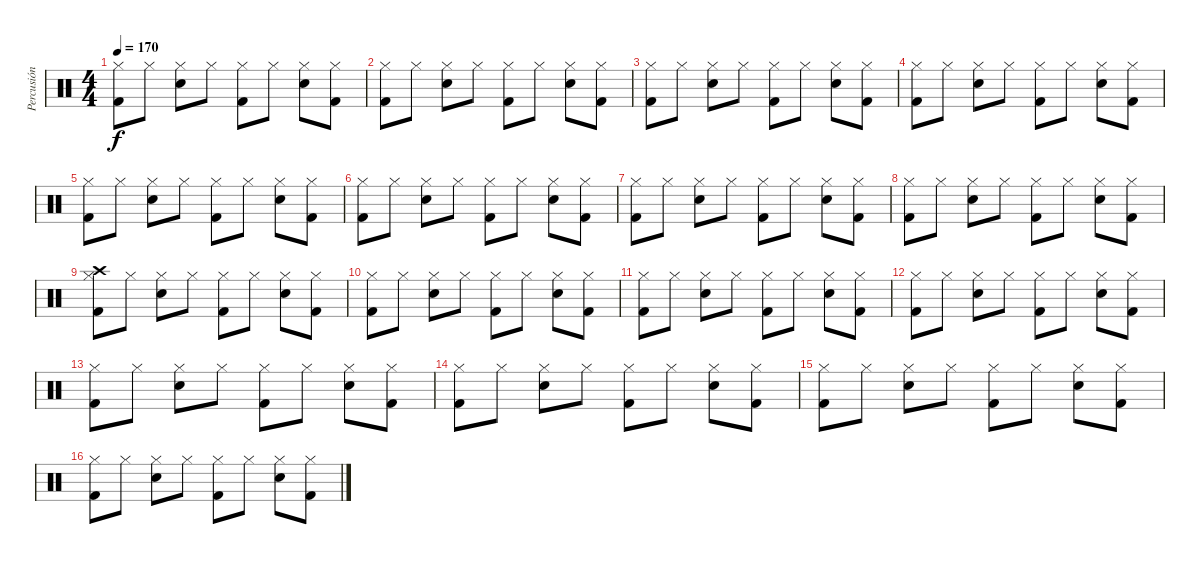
\track ("Percusión" "Percusión") {instrument percussion}
\staff {score}
\articulation defaults
\ts (4 4)
\tempo 170
\clef neutral
\ks c
("Hi-Hat (closed)" "Kick (hit) 2").8{dy f} "Hi-Hat (closed)".8 ("Hi-Hat (closed)" "Electric Snare (hit)").8 "Hi-Hat (closed)".8 ("Hi-Hat (closed)" "Kick (hit) 2").8 "Hi-Hat (closed)".8 ("Hi-Hat (closed)" "Electric Snare (hit)").8 ("Hi-Hat (closed)" "Kick (hit) 2").8 |
("Hi-Hat (closed)" "Kick (hit) 2").8 "Hi-Hat (closed)".8 ("Hi-Hat (closed)" "Electric Snare (hit)").8 "Hi-Hat (closed)".8 ("Hi-Hat (closed)" "Kick (hit) 2").8 "Hi-Hat (closed)".8 ("Hi-Hat (closed)" "Electric Snare (hit)").8 ("Hi-Hat (closed)" "Kick (hit) 2").8 |
("Hi-Hat (closed)" "Kick (hit) 2").8 "Hi-Hat (closed)".8 ("Hi-Hat (closed)" "Electric Snare (hit)").8 "Hi-Hat (closed)".8 ("Hi-Hat (closed)" "Kick (hit) 2").8 "Hi-Hat (closed)".8 ("Hi-Hat (closed)" "Electric Snare (hit)").8 ("Hi-Hat (closed)" "Kick (hit) 2").8 |
("Hi-Hat (closed)" "Kick (hit) 2").8 "Hi-Hat (closed)".8 ("Hi-Hat (closed)" "Electric Snare (hit)").8 "Hi-Hat (closed)".8 ("Hi-Hat (closed)" "Kick (hit) 2").8 "Hi-Hat (closed)".8 ("Hi-Hat (closed)" "Electric Snare (hit)").8 ("Hi-Hat (closed)" "Kick (hit) 2").8 |
("Hi-Hat (closed)" "Kick (hit) 2").8 "Hi-Hat (closed)".8 ("Hi-Hat (closed)" "Electric Snare (hit)").8 "Hi-Hat (closed)".8 ("Hi-Hat (closed)" "Kick (hit) 2").8 "Hi-Hat (closed)".8 ("Hi-Hat (closed)" "Electric Snare (hit)").8 ("Hi-Hat (closed)" "Kick (hit) 2").8 |
("Hi-Hat (closed)" "Kick (hit) 2").8 "Hi-Hat (closed)".8 ("Hi-Hat (closed)" "Electric Snare (hit)").8 "Hi-Hat (closed)".8 ("Hi-Hat (closed)" "Kick (hit) 2").8 "Hi-Hat (closed)".8 ("Hi-Hat (closed)" "Electric Snare (hit)").8 ("Hi-Hat (closed)" "Kick (hit) 2").8 |
("Hi-Hat (closed)" "Kick (hit) 2").8 "Hi-Hat (closed)".8 ("Hi-Hat (closed)" "Electric Snare (hit)").8 "Hi-Hat (closed)".8 ("Hi-Hat (closed)" "Kick (hit) 2").8 "Hi-Hat (closed)".8 ("Hi-Hat (closed)" "Electric Snare (hit)").8 ("Hi-Hat (closed)" "Kick (hit) 2").8 |
("Hi-Hat (closed)" "Kick (hit) 2").8 "Hi-Hat (closed)".8 ("Hi-Hat (closed)" "Electric Snare (hit)").8 "Hi-Hat (closed)".8 ("Hi-Hat (closed)" "Kick (hit) 2").8 "Hi-Hat (closed)".8 ("Hi-Hat (closed)" "Electric Snare (hit)").8 ("Hi-Hat (closed)" "Kick (hit) 2").8 |
("Crash high (hit)" "Hi-Hat (closed)" "Kick (hit) 2").8 "Hi-Hat (closed)".8 ("Hi-Hat (closed)" "Electric Snare (hit)").8 "Hi-Hat (closed)".8 ("Hi-Hat (closed)" "Kick (hit) 2").8 "Hi-Hat (closed)".8 ("Hi-Hat (closed)" "Electric Snare (hit)").8 ("Hi-Hat (closed)" "Kick (hit) 2").8 |
("Hi-Hat (closed)" "Kick (hit) 2").8 "Hi-Hat (closed)".8 ("Hi-Hat (closed)" "Electric Snare (hit)").8 "Hi-Hat (closed)".8 ("Hi-Hat (closed)" "Kick (hit) 2").8 "Hi-Hat (closed)".8 ("Hi-Hat (closed)" "Electric Snare (hit)").8 ("Hi-Hat (closed)" "Kick (hit) 2").8 |
("Hi-Hat (closed)" "Kick (hit) 2").8 "Hi-Hat (closed)".8 ("Hi-Hat (closed)" "Electric Snare (hit)").8 "Hi-Hat (closed)".8 ("Hi-Hat (closed)" "Kick (hit) 2").8 "Hi-Hat (closed)".8 ("Hi-Hat (closed)" "Electric Snare (hit)").8 ("Hi-Hat (closed)" "Kick (hit) 2").8 |
("Hi-Hat (closed)" "Kick (hit) 2").8 "Hi-Hat (closed)".8 ("Hi-Hat (closed)" "Electric Snare (hit)").8 "Hi-Hat (closed)".8 ("Hi-Hat (closed)" "Kick (hit) 2").8 "Hi-Hat (closed)".8 ("Hi-Hat (closed)" "Electric Snare (hit)").8 ("Hi-Hat (closed)" "Kick (hit) 2").8 |
("Hi-Hat (closed)" "Kick (hit) 2").8 "Hi-Hat (closed)".8 ("Hi-Hat (closed)" "Electric Snare (hit)").8 "Hi-Hat (closed)".8 ("Hi-Hat (closed)" "Kick (hit) 2").8 "Hi-Hat (closed)".8 ("Hi-Hat (closed)" "Electric Snare (hit)").8 ("Hi-Hat (closed)" "Kick (hit) 2").8 |
("Hi-Hat (closed)" "Kick (hit) 2").8 "Hi-Hat (closed)".8 ("Hi-Hat (closed)" "Electric Snare (hit)").8 "Hi-Hat (closed)".8 ("Hi-Hat (closed)" "Kick (hit) 2").8 "Hi-Hat (closed)".8 ("Hi-Hat (closed)" "Electric Snare (hit)").8 ("Hi-Hat (closed)" "Kick (hit) 2").8 |
("Hi-Hat (closed)" "Kick (hit) 2").8 "Hi-Hat (closed)".8 ("Hi-Hat (closed)" "Electric Snare (hit)").8 "Hi-Hat (closed)".8 ("Hi-Hat (closed)" "Kick (hit) 2").8 "Hi-Hat (closed)".8 ("Hi-Hat (closed)" "Electric Snare (hit)").8 ("Hi-Hat (closed)" "Kick (hit) 2").8 |
("Hi-Hat (closed)" "Kick (hit) 2").8 "Hi-Hat (closed)".8 ("Hi-Hat (closed)" "Electric Snare (hit)").8 "Hi-Hat (closed)".8 ("Hi-Hat (closed)" "Kick (hit) 2").8 "Hi-Hat (closed)".8 ("Hi-Hat (closed)" "Electric Snare (hit)").8 ("Hi-Hat (closed)" "Kick (hit) 2").8
